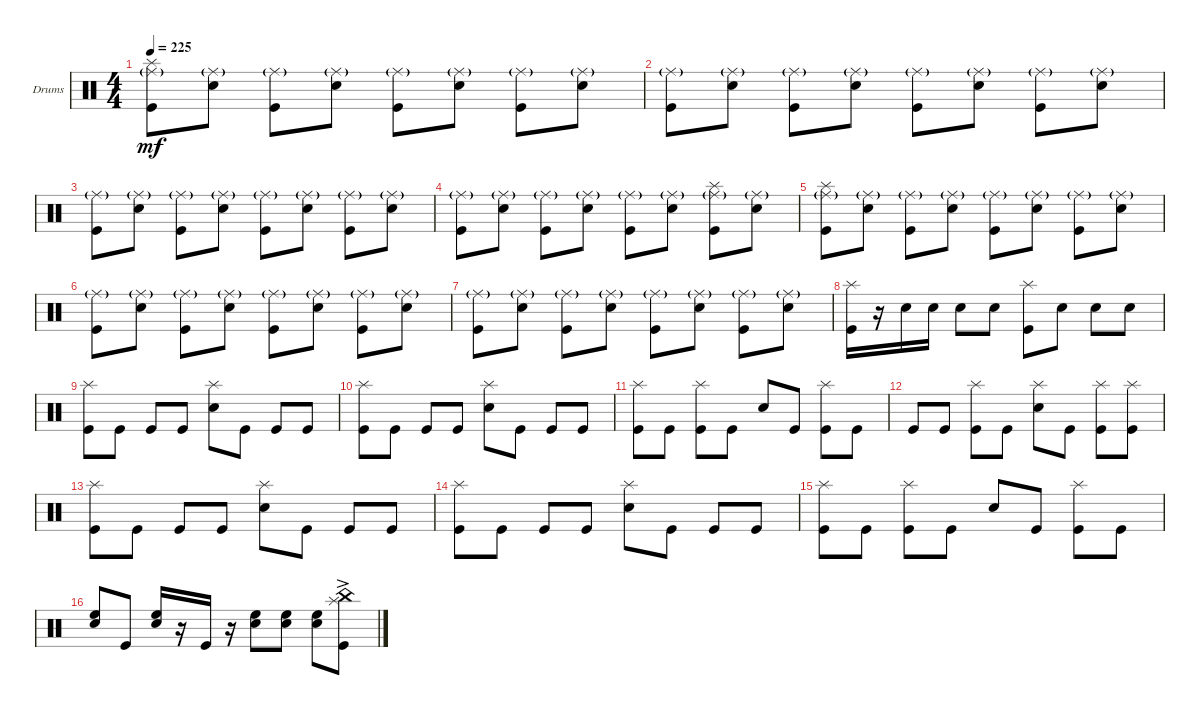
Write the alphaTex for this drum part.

\bracketExtendMode groupsimilarinstruments
\firstSystemTrackNameOrientation horizontal
\otherSystemsTrackNameOrientation horizontal
\track ("Drumkit" "Drums") {instrument percussion}
\staff {score}
\articulation defaults
\ts (4 4)
\tempo 225
\clef neutral
\ks c
("Kick (hit)" "Ride (middle)"{g} "Splash (hit)").8{dy mf} ("Snare (hit) 2" "Ride (middle)"{g}).8 ("Kick (hit)" "Ride (middle)"{g}).8 ("Snare (hit) 2" "Ride (middle)"{g}).8 ("Kick (hit)" "Ride (middle)"{g}).8 ("Snare (hit) 2" "Ride (middle)"{g}).8 ("Kick (hit)" "Ride (middle)"{g}).8 ("Snare (hit) 2" "Ride (middle)"{g}).8 |
("Kick (hit)" "Ride (middle)"{g}).8 ("Snare (hit) 2" "Ride (middle)"{g}).8 ("Kick (hit)" "Ride (middle)"{g}).8 ("Snare (hit) 2" "Ride (middle)"{g}).8 ("Kick (hit)" "Ride (middle)"{g}).8 ("Snare (hit) 2" "Ride (middle)"{g}).8 ("Kick (hit)" "Ride (middle)"{g}).8 ("Snare (hit) 2" "Ride (middle)"{g}).8 |
("Kick (hit)" "Ride (middle)"{g}).8 ("Snare (hit) 2" "Ride (middle)"{g}).8 ("Kick (hit)" "Ride (middle)"{g}).8 ("Snare (hit) 2" "Ride (middle)"{g}).8 ("Kick (hit)" "Ride (middle)"{g}).8 ("Snare (hit) 2" "Ride (middle)"{g}).8 ("Kick (hit)" "Ride (middle)"{g}).8 ("Snare (hit) 2" "Ride (middle)"{g}).8 |
("Kick (hit)" "Ride (middle)"{g}).8 ("Snare (hit) 2" "Ride (middle)"{g}).8 ("Kick (hit)" "Ride (middle)"{g}).8 ("Snare (hit) 2" "Ride (middle)"{g}).8 ("Kick (hit)" "Ride (middle)"{g}).8 ("Snare (hit) 2" "Ride (middle)"{g}).8 ("Kick (hit)" "Ride (middle)"{g} "Splash (hit)").8 ("Snare (hit) 2" "Ride (middle)"{g}).8 |
("Kick (hit)" "Ride (middle)"{g} "Splash (hit)").8 ("Snare (hit) 2" "Ride (middle)"{g}).8 ("Kick (hit)" "Ride (middle)"{g}).8 ("Snare (hit) 2" "Ride (middle)"{g}).8 ("Kick (hit)" "Ride (middle)"{g}).8 ("Snare (hit) 2" "Ride (middle)"{g}).8 ("Kick (hit)" "Ride (middle)"{g}).8 ("Snare (hit) 2" "Ride (middle)"{g}).8 |
("Kick (hit)" "Ride (middle)"{g}).8 ("Snare (hit) 2" "Ride (middle)"{g}).8 ("Kick (hit)" "Ride (middle)"{g}).8 ("Snare (hit) 2" "Ride (middle)"{g}).8 ("Kick (hit)" "Ride (middle)"{g}).8 ("Snare (hit) 2" "Ride (middle)"{g}).8 ("Kick (hit)" "Ride (middle)"{g}).8 ("Snare (hit) 2" "Ride (middle)"{g}).8 |
("Kick (hit)" "Ride (middle)"{g}).8 ("Snare (hit) 2" "Ride (middle)"{g}).8 ("Kick (hit)" "Ride (middle)"{g}).8 ("Snare (hit) 2" "Ride (middle)"{g}).8 ("Kick (hit)" "Ride (middle)"{g}).8 ("Snare (hit) 2" "Ride (middle)"{g}).8 ("Kick (hit)" "Ride (middle)"{g}).8 ("Snare (hit) 2" "Ride (middle)"{g}).8 |
("Kick (hit)" "Splash (hit)").16 r.16 "Snare (hit) 2".16 "Snare (hit) 2".16 "Snare (hit) 2".8 "Snare (hit) 2".8 ("Kick (hit)" "Splash (hit)").8 "Snare (hit) 2".8 "Snare (hit) 2".8 "Snare (hit) 2".8 |
("Kick (hit)" "Splash (hit)").8 "Kick (hit)".8 "Kick (hit)".8 "Kick (hit)".8 ("Snare (hit) 2" "Splash (hit)").8 "Kick (hit)".8 "Kick (hit)".8 "Kick (hit)".8 |
("Kick (hit)" "Splash (hit)").8 "Kick (hit)".8 "Kick (hit)".8 "Kick (hit)".8 ("Snare (hit) 2" "Splash (hit)").8 "Kick (hit)".8 "Kick (hit)".8 "Kick (hit)".8 |
("Kick (hit)" "Splash (hit)").8 "Kick (hit)".8 ("Kick (hit)" "Splash (hit)").8 "Kick (hit)".8 "Snare (hit) 2".8 "Kick (hit)".8 ("Kick (hit)" "Splash (hit)").8 "Kick (hit)".8 |
"Kick (hit)".8 "Kick (hit)".8 ("Kick (hit)" "Splash (hit)").8 "Kick (hit)".8 ("Snare (hit) 2" "Splash (hit)").8 "Kick (hit)".8 ("Kick (hit)" "Splash (hit)").8 ("Kick (hit)" "Splash (hit)").8 |
("Kick (hit)" "Splash (hit)").8 "Kick (hit)".8 "Kick (hit)".8 "Kick (hit)".8 ("Snare (hit) 2" "Splash (hit)").8 "Kick (hit)".8 "Kick (hit)".8 "Kick (hit)".8 |
("Kick (hit)" "Splash (hit)").8 "Kick (hit)".8 "Kick (hit)".8 "Kick (hit)".8 ("Snare (hit) 2" "Splash (hit)").8 "Kick (hit)".8 "Kick (hit)".8 "Kick (hit)".8 |
("Kick (hit)" "Splash (hit)").8 "Kick (hit)".8 ("Kick (hit)" "Splash (hit)").8 "Kick (hit)".8 "Snare (hit) 2".8 "Kick (hit)".8 ("Kick (hit)" "Splash (hit)").8 "Kick (hit)".8 |
("Snare (hit) 2" "High Floor Tom (hit)").8 "Kick (hit)".8 ("Snare (hit) 2" "High Floor Tom (hit)").16 r.16 "Kick (hit)".16 r.16 ("Snare (hit) 2" "High Floor Tom (hit)").8 ("Snare (hit) 2" "High Floor Tom (hit)").8 ("Snare (hit) 2" "High Floor Tom (hit)").8 ("Kick (hit)"{ac} "China (hit)"{ac} "Splash (hit)"{ac}).8
